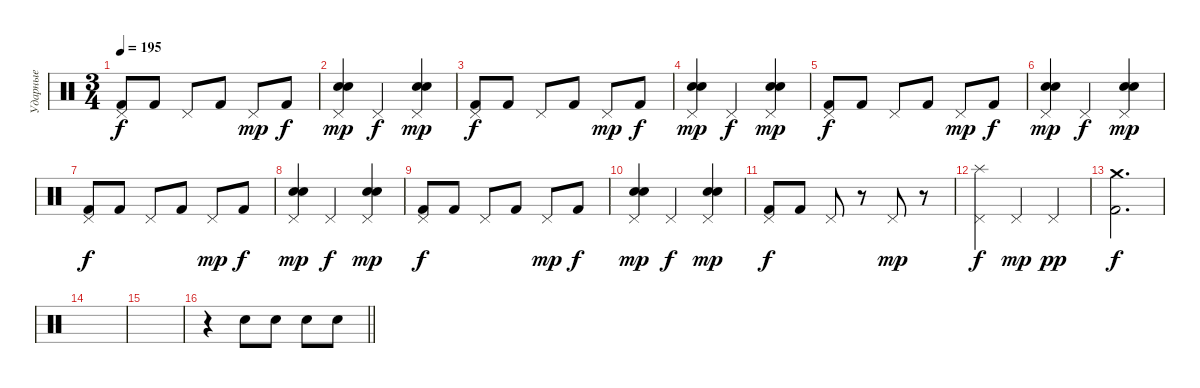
\track ("Ударные" "Ударные") {instrument percussion}
\staff {score}
\articulation defaults
\ts (3 4)
\tempo 195
\clef neutral
\ks c
("Pedal Hi-Hat (hit)" "Kick (hit) 2").8{dy f} "Kick (hit) 2".8 "Pedal Hi-Hat (hit)".8 "Kick (hit) 2".8 "Pedal Hi-Hat (hit)".8{dy mp} "Kick (hit) 2".8{dy f} |
("Pedal Hi-Hat (hit)" "Electric Snare (hit)" "Snare (hit) 2").4{dy mp} "Pedal Hi-Hat (hit)".4{dy f} ("Pedal Hi-Hat (hit)" "Electric Snare (hit)" "Snare (hit) 2").4{dy mp} |
("Pedal Hi-Hat (hit)" "Kick (hit) 2").8{dy f} "Kick (hit) 2".8 "Pedal Hi-Hat (hit)".8 "Kick (hit) 2".8 "Pedal Hi-Hat (hit)".8{dy mp} "Kick (hit) 2".8{dy f} |
("Pedal Hi-Hat (hit)" "Electric Snare (hit)" "Snare (hit) 2").4{dy mp} "Pedal Hi-Hat (hit)".4{dy f} ("Pedal Hi-Hat (hit)" "Electric Snare (hit)" "Snare (hit) 2").4{dy mp} |
("Pedal Hi-Hat (hit)" "Kick (hit) 2").8{dy f} "Kick (hit) 2".8 "Pedal Hi-Hat (hit)".8 "Kick (hit) 2".8 "Pedal Hi-Hat (hit)".8{dy mp} "Kick (hit) 2".8{dy f} |
("Pedal Hi-Hat (hit)" "Electric Snare (hit)" "Snare (hit) 2").4{dy mp} "Pedal Hi-Hat (hit)".4{dy f} ("Pedal Hi-Hat (hit)" "Electric Snare (hit)" "Snare (hit) 2").4{dy mp} |
("Pedal Hi-Hat (hit)" "Kick (hit) 2").8{dy f} "Kick (hit) 2".8 "Pedal Hi-Hat (hit)".8 "Kick (hit) 2".8 "Pedal Hi-Hat (hit)".8{dy mp} "Kick (hit) 2".8{dy f} |
("Pedal Hi-Hat (hit)" "Electric Snare (hit)" "Snare (hit) 2").4{dy mp} "Pedal Hi-Hat (hit)".4{dy f} ("Pedal Hi-Hat (hit)" "Electric Snare (hit)" "Snare (hit) 2").4{dy mp} |
("Pedal Hi-Hat (hit)" "Kick (hit) 2").8{dy f} "Kick (hit) 2".8 "Pedal Hi-Hat (hit)".8 "Kick (hit) 2".8 "Pedal Hi-Hat (hit)".8{dy mp} "Kick (hit) 2".8{dy f} |
("Pedal Hi-Hat (hit)" "Electric Snare (hit)" "Snare (hit) 2").4{dy mp} "Pedal Hi-Hat (hit)".4{dy f} ("Pedal Hi-Hat (hit)" "Electric Snare (hit)" "Snare (hit) 2").4{dy mp} |
("Pedal Hi-Hat (hit)" "Kick (hit) 2").8{dy f} "Kick (hit) 2".8 "Pedal Hi-Hat (hit)".8 r.8 "Pedal Hi-Hat (hit)".8{dy mp} r.8 |
("Pedal Hi-Hat (hit)" "Splash (hit)").4{dy f} "Pedal Hi-Hat (hit)".4{dy mp} "Pedal Hi-Hat (hit)".4{dy pp} |
("Crash medium (hit)" "Kick (hit) 2").2{d dy f} |
|
|
\barLineRight lightlight
r.4 "Electric Snare (hit)".8 "Electric Snare (hit)".8 "Electric Snare (hit)".8 "Electric Snare (hit)".8
